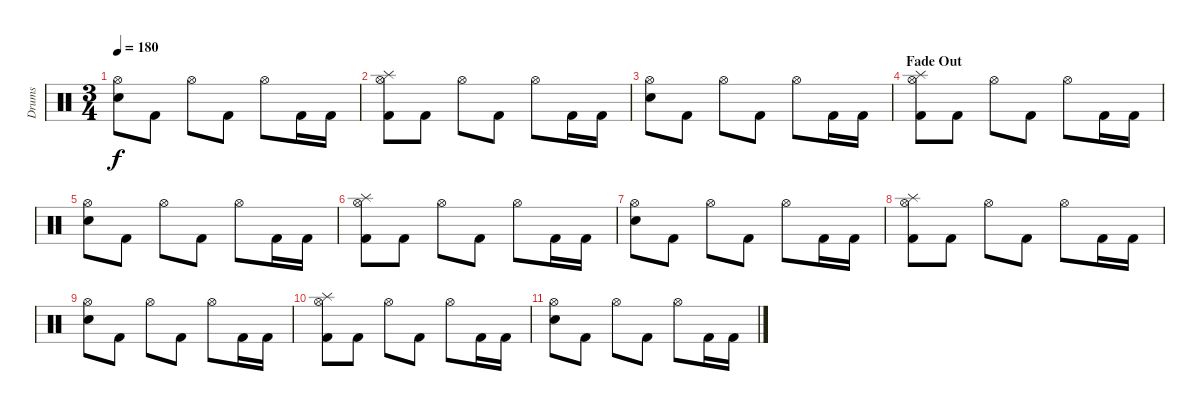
\track ("Drums" "Drums") {instrument percussion}
\staff {score}
\articulation defaults
\ts (3 4)
\tempo 180
\clef neutral
\ks c
("Hi-Hat (open)" "Electric Snare (hit)").8{dy f} "Kick (hit) 2".8 "Hi-Hat (open)".8 "Kick (hit) 2".8 "Hi-Hat (open)".8 "Kick (hit) 2".16 "Kick (hit) 2".16 |
("Splash (hit)" "Hi-Hat (open)" "Kick (hit) 2").8 "Kick (hit) 2".8 "Hi-Hat (open)".8 "Kick (hit) 2".8 "Hi-Hat (open)".8 "Kick (hit) 2".16 "Kick (hit) 2".16 |
("Hi-Hat (open)" "Electric Snare (hit)").8 "Kick (hit) 2".8 "Hi-Hat (open)".8 "Kick (hit) 2".8 "Hi-Hat (open)".8 "Kick (hit) 2".16 "Kick (hit) 2".16 |
\section ("" "Fade Out")
("Splash (hit)" "Hi-Hat (open)" "Kick (hit) 2").8 "Kick (hit) 2".8 "Hi-Hat (open)".8 "Kick (hit) 2".8 "Hi-Hat (open)".8 "Kick (hit) 2".16 "Kick (hit) 2".16 |
("Hi-Hat (open)" "Electric Snare (hit)").8 "Kick (hit) 2".8 "Hi-Hat (open)".8 "Kick (hit) 2".8 "Hi-Hat (open)".8 "Kick (hit) 2".16 "Kick (hit) 2".16 |
("Splash (hit)" "Hi-Hat (open)" "Kick (hit) 2").8 "Kick (hit) 2".8 "Hi-Hat (open)".8 "Kick (hit) 2".8 "Hi-Hat (open)".8 "Kick (hit) 2".16 "Kick (hit) 2".16 |
("Hi-Hat (open)" "Electric Snare (hit)").8 "Kick (hit) 2".8 "Hi-Hat (open)".8 "Kick (hit) 2".8 "Hi-Hat (open)".8 "Kick (hit) 2".16 "Kick (hit) 2".16 |
("Splash (hit)" "Hi-Hat (open)" "Kick (hit) 2").8 "Kick (hit) 2".8 "Hi-Hat (open)".8 "Kick (hit) 2".8 "Hi-Hat (open)".8 "Kick (hit) 2".16 "Kick (hit) 2".16 |
("Hi-Hat (open)" "Electric Snare (hit)").8 "Kick (hit) 2".8 "Hi-Hat (open)".8 "Kick (hit) 2".8 "Hi-Hat (open)".8 "Kick (hit) 2".16 "Kick (hit) 2".16 |
("Splash (hit)" "Hi-Hat (open)" "Kick (hit) 2").8 "Kick (hit) 2".8 "Hi-Hat (open)".8 "Kick (hit) 2".8 "Hi-Hat (open)".8 "Kick (hit) 2".16 "Kick (hit) 2".16 |
("Hi-Hat (open)" "Electric Snare (hit)").8 "Kick (hit) 2".8 "Hi-Hat (open)".8 "Kick (hit) 2".8 "Hi-Hat (open)".8 "Kick (hit) 2".16 "Kick (hit) 2".16
